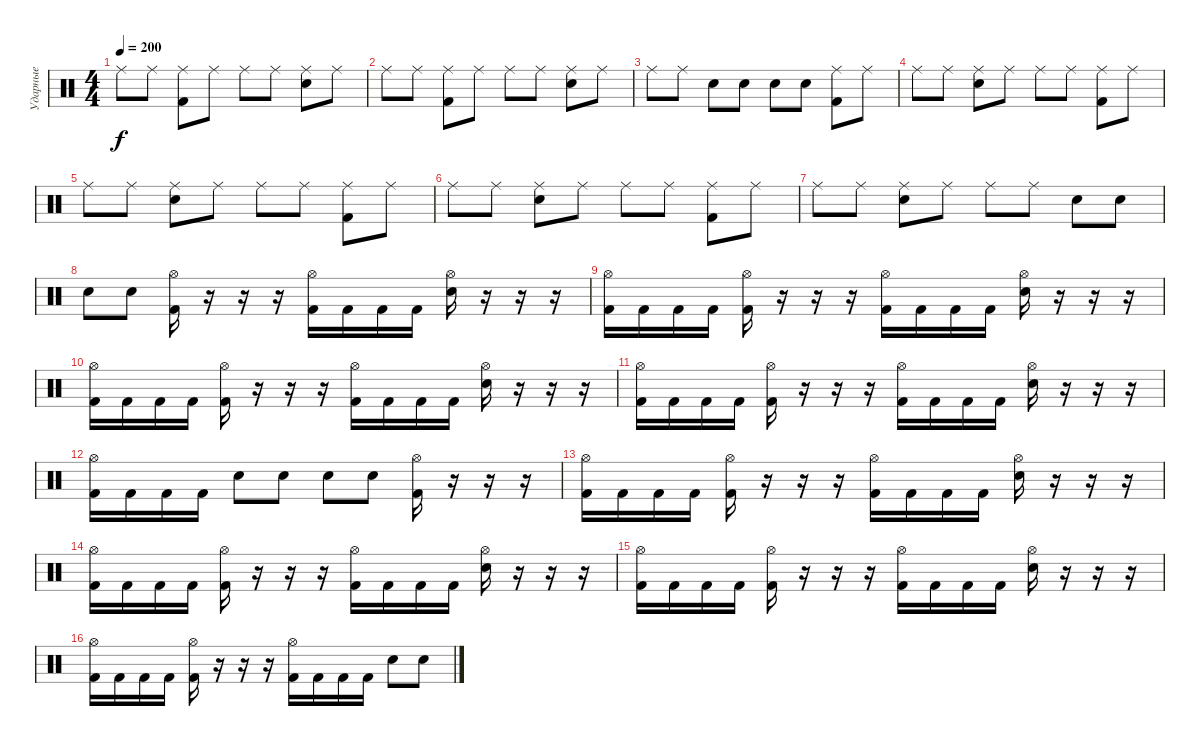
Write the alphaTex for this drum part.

\track ("Ударные" "Ударные") {instrument percussion}
\staff {score}
\articulation defaults
\ts (4 4)
\tempo 200
\clef neutral
\ks c "Ride (middle)".8{dy f} "Ride (middle)".8
("Kick (hit) 2" "Ride (middle)").8 "Ride (middle)".8 "Ride (middle)".8 "Ride (middle)".8 ("Electric Snare (hit)" "Ride (middle)").8 "Ride (middle)".8 |
"Ride (middle)".8 "Ride (middle)".8 ("Kick (hit) 2" "Ride (middle)").8 "Ride (middle)".8 "Ride (middle)".8 "Ride (middle)".8 ("Electric Snare (hit)" "Ride (middle)").8 "Ride (middle)".8 |
"Ride (middle)".8 "Ride (middle)".8 "Electric Snare (hit)".8 "Electric Snare (hit)".8 "Electric Snare (hit)".8 "Electric Snare (hit)".8 ("Kick (hit) 2" "Ride (middle)").8 "Ride (middle)".8 |
"Ride (middle)".8 "Ride (middle)".8 ("Electric Snare (hit)" "Ride (middle)").8 "Ride (middle)".8 "Ride (middle)".8 "Ride (middle)".8 ("Kick (hit) 2" "Ride (middle)").8 "Ride (middle)".8 |
"Ride (middle)".8 "Ride (middle)".8 ("Electric Snare (hit)" "Ride (middle)").8 "Ride (middle)".8 "Ride (middle)".8 "Ride (middle)".8 ("Kick (hit) 2" "Ride (middle)").8 "Ride (middle)".8 |
"Ride (middle)".8 "Ride (middle)".8 ("Electric Snare (hit)" "Ride (middle)").8 "Ride (middle)".8 "Ride (middle)".8 "Ride (middle)".8 ("Kick (hit) 2" "Ride (middle)").8 "Ride (middle)".8 |
"Ride (middle)".8 "Ride (middle)".8 ("Electric Snare (hit)" "Ride (middle)").8 "Ride (middle)".8 "Ride (middle)".8 "Ride (middle)".8 "Electric Snare (hit)".8 "Electric Snare (hit)".8 |
"Electric Snare (hit)".8 "Electric Snare (hit)".8 ("Kick (hit) 2" "Hi-Hat (open)").16 r.16 r.16 r.16 ("Kick (hit) 2" "Hi-Hat (open)").16 "Kick (hit) 2".16 "Kick (hit) 2".16 "Kick (hit) 2".16 ("Electric Snare (hit)" "Hi-Hat (open)").16 r.16 r.16 r.16 |
("Kick (hit) 2" "Hi-Hat (open)").16 "Kick (hit) 2".16 "Kick (hit) 2".16 "Kick (hit) 2".16 ("Kick (hit) 2" "Hi-Hat (open)").16 r.16 r.16 r.16 ("Kick (hit) 2" "Hi-Hat (open)").16 "Kick (hit) 2".16 "Kick (hit) 2".16 "Kick (hit) 2".16 ("Electric Snare (hit)" "Hi-Hat (open)").16 r.16 r.16 r.16 |
("Kick (hit) 2" "Hi-Hat (open)").16 "Kick (hit) 2".16 "Kick (hit) 2".16 "Kick (hit) 2".16 ("Kick (hit) 2" "Hi-Hat (open)").16 r.16 r.16 r.16 ("Kick (hit) 2" "Hi-Hat (open)").16 "Kick (hit) 2".16 "Kick (hit) 2".16 "Kick (hit) 2".16 ("Electric Snare (hit)" "Hi-Hat (open)").16 r.16 r.16 r.16 |
("Kick (hit) 2" "Hi-Hat (open)").16 "Kick (hit) 2".16 "Kick (hit) 2".16 "Kick (hit) 2".16 ("Kick (hit) 2" "Hi-Hat (open)").16 r.16 r.16 r.16 ("Kick (hit) 2" "Hi-Hat (open)").16 "Kick (hit) 2".16 "Kick (hit) 2".16 "Kick (hit) 2".16 ("Electric Snare (hit)" "Hi-Hat (open)").16 r.16 r.16 r.16 |
("Kick (hit) 2" "Hi-Hat (open)").16 "Kick (hit) 2".16 "Kick (hit) 2".16 "Kick (hit) 2".16 "Electric Snare (hit)".8 "Electric Snare (hit)".8 "Electric Snare (hit)".8 "Electric Snare (hit)".8 ("Kick (hit) 2" "Hi-Hat (open)").16 r.16 r.16 r.16 |
("Kick (hit) 2" "Hi-Hat (open)").16 "Kick (hit) 2".16 "Kick (hit) 2".16 "Kick (hit) 2".16 ("Kick (hit) 2" "Hi-Hat (open)").16 r.16 r.16 r.16 ("Kick (hit) 2" "Hi-Hat (open)").16 "Kick (hit) 2".16 "Kick (hit) 2".16 "Kick (hit) 2".16 ("Electric Snare (hit)" "Hi-Hat (open)").16 r.16 r.16 r.16 |
("Kick (hit) 2" "Hi-Hat (open)").16 "Kick (hit) 2".16 "Kick (hit) 2".16 "Kick (hit) 2".16 ("Kick (hit) 2" "Hi-Hat (open)").16 r.16 r.16 r.16 ("Kick (hit) 2" "Hi-Hat (open)").16 "Kick (hit) 2".16 "Kick (hit) 2".16 "Kick (hit) 2".16 ("Electric Snare (hit)" "Hi-Hat (open)").16 r.16 r.16 r.16 |
("Kick (hit) 2" "Hi-Hat (open)").16 "Kick (hit) 2".16 "Kick (hit) 2".16 "Kick (hit) 2".16 ("Kick (hit) 2" "Hi-Hat (open)").16 r.16 r.16 r.16 ("Kick (hit) 2" "Hi-Hat (open)").16 "Kick (hit) 2".16 "Kick (hit) 2".16 "Kick (hit) 2".16 ("Electric Snare (hit)" "Hi-Hat (open)").16 r.16 r.16 r.16 |
("Kick (hit) 2" "Hi-Hat (open)").16 "Kick (hit) 2".16 "Kick (hit) 2".16 "Kick (hit) 2".16 ("Kick (hit) 2" "Hi-Hat (open)").16 r.16 r.16 r.16 ("Kick (hit) 2" "Hi-Hat (open)").16 "Kick (hit) 2".16 "Kick (hit) 2".16 "Kick (hit) 2".16 "Electric Snare (hit)".8 "Electric Snare (hit)".8
